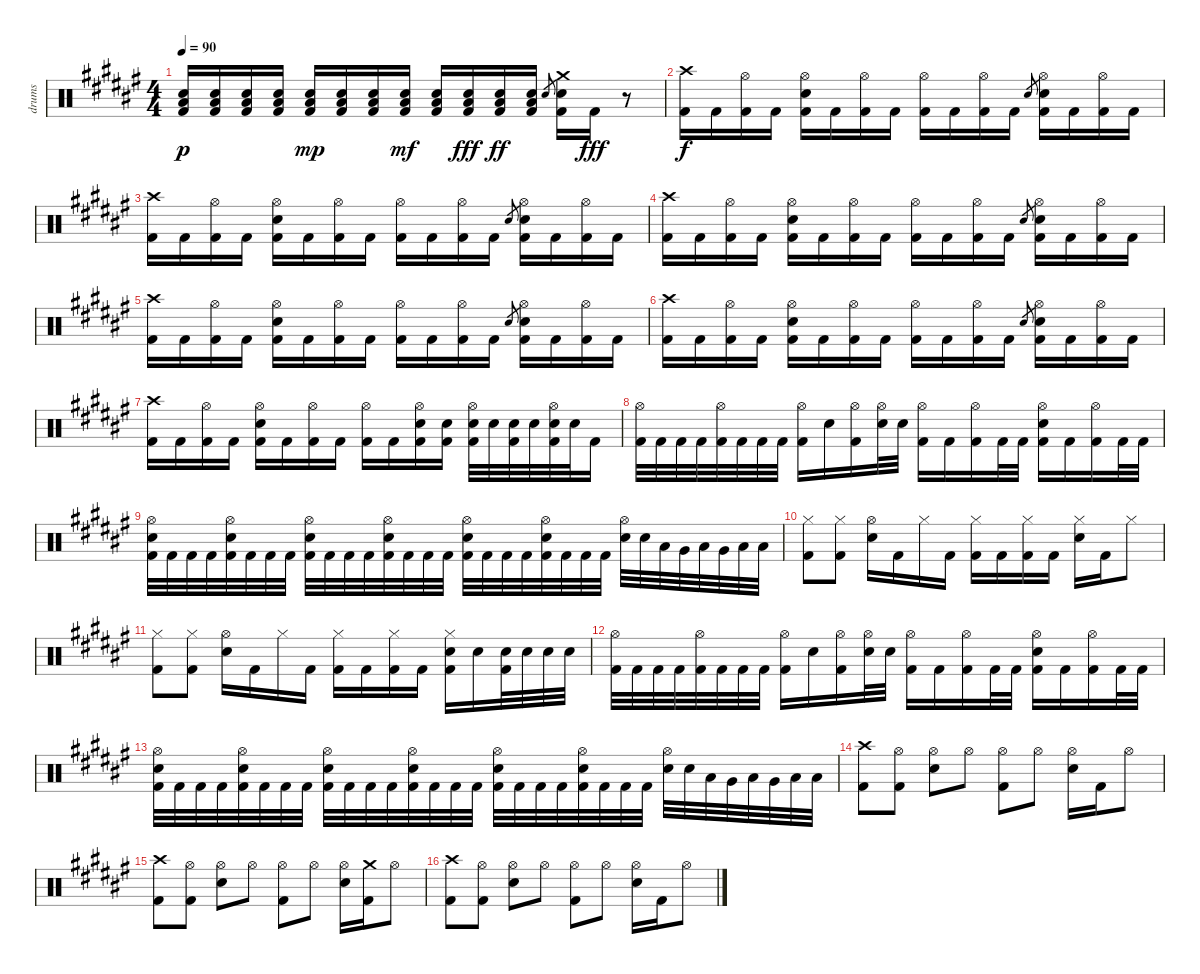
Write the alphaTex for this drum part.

\track ("drums" "drums") {instrument percussion}
\staff {score}
\articulation defaults
\ts (4 4)
\tempo 90
\clef neutral
\ks d#minor
("Low Floor Tom (hit)" "Electric Snare (hit)" "Kick (hit) 2").16{dy p} ("Low Floor Tom (hit)" "Electric Snare (hit)" "Kick (hit) 2").16 ("Low Floor Tom (hit)" "Electric Snare (hit)" "Kick (hit) 2").16 ("Low Floor Tom (hit)" "Electric Snare (hit)" "Kick (hit) 2").16 ("Low Floor Tom (hit)" "Electric Snare (hit)" "Kick (hit) 2").16{dy mp} ("Low Floor Tom (hit)" "Electric Snare (hit)" "Kick (hit) 2").16 ("Low Floor Tom (hit)" "Electric Snare (hit)" "Kick (hit) 2").16 ("Low Floor Tom (hit)" "Electric Snare (hit)" "Kick (hit) 2").16{dy mf} ("Low Floor Tom (hit)" "Electric Snare (hit)" "Kick (hit) 2").16 ("Low Floor Tom (hit)" "Electric Snare (hit)" "Kick (hit) 2").16{dy fff} ("Low Floor Tom (hit)" "Electric Snare (hit)" "Kick (hit) 2").16{dy ff} ("Low Floor Tom (hit)" "Electric Snare (hit)" "Kick (hit) 2").16 "Electric Snare (hit)".8{gr} ("Crash medium (hit)" "Electric Snare (hit)" "Kick (hit) 2").16 "Kick (hit) 2".16{dy fff} r.8 |
("Crash high (hit)" "Kick (hit) 2").16{dy f} "Kick (hit) 2".16 ("Hi-Hat (open)" "Kick (hit) 2").16 "Kick (hit) 2".16 ("Hi-Hat (open)" "Electric Snare (hit)" "Kick (hit) 2").16 "Kick (hit) 2".16 ("Hi-Hat (open)" "Kick (hit) 2").16 "Kick (hit) 2".16 ("Hi-Hat (open)" "Kick (hit) 2").16 "Kick (hit) 2".16 ("Hi-Hat (open)" "Kick (hit) 2").16 "Kick (hit) 2".16 "Electric Snare (hit)".8{gr} ("Hi-Hat (open)" "Electric Snare (hit)" "Kick (hit) 2").16 "Kick (hit) 2".16 ("Hi-Hat (open)" "Kick (hit) 2").16 "Kick (hit) 2".16 |
("Crash high (hit)" "Kick (hit) 2").16 "Kick (hit) 2".16 ("Hi-Hat (open)" "Kick (hit) 2").16 "Kick (hit) 2".16 ("Hi-Hat (open)" "Electric Snare (hit)" "Kick (hit) 2").16 "Kick (hit) 2".16 ("Hi-Hat (open)" "Kick (hit) 2").16 "Kick (hit) 2".16 ("Hi-Hat (open)" "Kick (hit) 2").16 "Kick (hit) 2".16 ("Hi-Hat (open)" "Kick (hit) 2").16 "Kick (hit) 2".16 "Electric Snare (hit)".8{gr} ("Hi-Hat (open)" "Electric Snare (hit)" "Kick (hit) 2").16 "Kick (hit) 2".16 ("Hi-Hat (open)" "Kick (hit) 2").16 "Kick (hit) 2".16 |
("Crash high (hit)" "Kick (hit) 2").16 "Kick (hit) 2".16 ("Hi-Hat (open)" "Kick (hit) 2").16 "Kick (hit) 2".16 ("Hi-Hat (open)" "Electric Snare (hit)" "Kick (hit) 2").16 "Kick (hit) 2".16 ("Hi-Hat (open)" "Kick (hit) 2").16 "Kick (hit) 2".16 ("Hi-Hat (open)" "Kick (hit) 2").16 "Kick (hit) 2".16 ("Hi-Hat (open)" "Kick (hit) 2").16 "Kick (hit) 2".16 "Electric Snare (hit)".8{gr} ("Hi-Hat (open)" "Electric Snare (hit)" "Kick (hit) 2").16 "Kick (hit) 2".16 ("Hi-Hat (open)" "Kick (hit) 2").16 "Kick (hit) 2".16 |
("Crash high (hit)" "Kick (hit) 2").16 "Kick (hit) 2".16 ("Hi-Hat (open)" "Kick (hit) 2").16 "Kick (hit) 2".16 ("Hi-Hat (open)" "Electric Snare (hit)" "Kick (hit) 2").16 "Kick (hit) 2".16 ("Hi-Hat (open)" "Kick (hit) 2").16 "Kick (hit) 2".16 ("Hi-Hat (open)" "Kick (hit) 2").16 "Kick (hit) 2".16 ("Hi-Hat (open)" "Kick (hit) 2").16 "Kick (hit) 2".16 "Electric Snare (hit)".8{gr} ("Hi-Hat (open)" "Electric Snare (hit)" "Kick (hit) 2").16 "Kick (hit) 2".16 ("Hi-Hat (open)" "Kick (hit) 2").16 "Kick (hit) 2".16 |
("Crash high (hit)" "Kick (hit) 2").16 "Kick (hit) 2".16 ("Hi-Hat (open)" "Kick (hit) 2").16 "Kick (hit) 2".16 ("Hi-Hat (open)" "Electric Snare (hit)" "Kick (hit) 2").16 "Kick (hit) 2".16 ("Hi-Hat (open)" "Kick (hit) 2").16 "Kick (hit) 2".16 ("Hi-Hat (open)" "Kick (hit) 2").16 "Kick (hit) 2".16 ("Hi-Hat (open)" "Kick (hit) 2").16 "Kick (hit) 2".16 "Electric Snare (hit)".8{gr} ("Hi-Hat (open)" "Electric Snare (hit)" "Kick (hit) 2").16 "Kick (hit) 2".16 ("Hi-Hat (open)" "Kick (hit) 2").16 "Kick (hit) 2".16 |
("Crash high (hit)" "Kick (hit) 2").16 "Kick (hit) 2".16 ("Hi-Hat (open)" "Kick (hit) 2").16 "Kick (hit) 2".16 ("Hi-Hat (open)" "Electric Snare (hit)" "Kick (hit) 2").16 "Kick (hit) 2".16 ("Hi-Hat (open)" "Kick (hit) 2").16 "Kick (hit) 2".16 ("Hi-Hat (open)" "Kick (hit) 2").16 "Kick (hit) 2".16 ("Hi-Hat (open)" "Electric Snare (hit)" "Kick (hit) 2").16 ("Electric Snare (hit)" "Kick (hit) 2").16 ("Hi-Hat (open)" "Electric Snare (hit)" "Kick (hit) 2").32 "Electric Snare (hit)".32 ("Electric Snare (hit)" "Kick (hit) 2").32 "Electric Snare (hit)".32 ("Hi-Hat (open)" "Electric Snare (hit)" "Kick (hit) 2").32 "Electric Snare (hit)".32 "Kick (hit) 2".16 |
("Hi-Hat (open)" "Kick (hit) 2").32 "Kick (hit) 2".32 "Kick (hit) 2".32 "Kick (hit) 2".32 ("Hi-Hat (open)" "Kick (hit) 2").32 "Kick (hit) 2".32 "Kick (hit) 2".32 "Kick (hit) 2".32 ("Hi-Hat (open)" "Kick (hit) 2").16 "Electric Snare (hit)".16 ("Hi-Hat (open)" "Kick (hit) 2").16 ("Hi-Hat (open)" "Electric Snare (hit)").32 "Electric Snare (hit)".32 ("Hi-Hat (open)" "Kick (hit) 2").16 "Kick (hit) 2".16 ("Hi-Hat (open)" "Kick (hit) 2").16 "Kick (hit) 2".32 "Kick (hit) 2".32 ("Hi-Hat (open)" "Electric Snare (hit)" "Kick (hit) 2").16 "Kick (hit) 2".16 ("Hi-Hat (open)" "Kick (hit) 2").16 "Kick (hit) 2".32 "Kick (hit) 2".32 |
("Hi-Hat (open)" "Electric Snare (hit)" "Kick (hit) 2").32 "Kick (hit) 2".32 "Kick (hit) 2".32 "Kick (hit) 2".32 ("Hi-Hat (open)" "Electric Snare (hit)" "Kick (hit) 2").32 "Kick (hit) 2".32 "Kick (hit) 2".32 "Kick (hit) 2".32 ("Hi-Hat (open)" "Electric Snare (hit)" "Kick (hit) 2").32 "Kick (hit) 2".32 "Kick (hit) 2".32 "Kick (hit) 2".32 ("Hi-Hat (open)" "Electric Snare (hit)" "Kick (hit) 2").32 "Kick (hit) 2".32 "Kick (hit) 2".32 "Kick (hit) 2".32 ("Hi-Hat (open)" "Electric Snare (hit)" "Kick (hit) 2").32 "Kick (hit) 2".32 "Kick (hit) 2".32 "Kick (hit) 2".32 ("Hi-Hat (open)" "Electric Snare (hit)" "Kick (hit) 2").32 "Kick (hit) 2".32 "Kick (hit) 2".32 "Kick (hit) 2".32 ("Hi-Hat (open)" "Electric Snare (hit)").32 "Electric Snare (hit)".32 "Low Tom (hit)".32 "Very Low Tom (hit)".32 "Low Tom (hit)".32 "Very Low Tom (hit)".32 "Low Floor Tom (hit)".32 "Low Floor Tom (hit)".32 |
("Hi-Hat (closed)" "Kick (hit) 2").8 ("Hi-Hat (closed)" "Kick (hit) 2").8 ("Hi-Hat (open)" "Electric Snare (hit)").16 "Kick (hit) 2".16 "Hi-Hat (closed)".16 "Kick (hit) 2".16 ("Hi-Hat (closed)" "Kick (hit) 2").16 "Kick (hit) 2".16 ("Hi-Hat (closed)" "Kick (hit) 2").16 "Kick (hit) 2".16 ("Hi-Hat (closed)" "Electric Snare (hit)").16 "Kick (hit) 2".16 "Hi-Hat (closed)".8 |
("Hi-Hat (closed)" "Kick (hit) 2").8 ("Hi-Hat (closed)" "Kick (hit) 2").8 ("Hi-Hat (open)" "Electric Snare (hit)").16 "Kick (hit) 2".16 "Hi-Hat (closed)".16 "Kick (hit) 2".16 ("Hi-Hat (closed)" "Kick (hit) 2").16 "Kick (hit) 2".16 ("Hi-Hat (closed)" "Kick (hit) 2").16 "Kick (hit) 2".16 ("Hi-Hat (closed)" "Electric Snare (hit)" "Kick (hit) 2").16 "Electric Snare (hit)".16 ("Electric Snare (hit)" "Kick (hit) 2").32 "Electric Snare (hit)".32 "Electric Snare (hit)".32 "Electric Snare (hit)".32 |
("Hi-Hat (open)" "Kick (hit) 2").32 "Kick (hit) 2".32 "Kick (hit) 2".32 "Kick (hit) 2".32 ("Hi-Hat (open)" "Kick (hit) 2").32 "Kick (hit) 2".32 "Kick (hit) 2".32 "Kick (hit) 2".32 ("Hi-Hat (open)" "Kick (hit) 2").16 "Electric Snare (hit)".16 ("Hi-Hat (open)" "Kick (hit) 2").16 ("Hi-Hat (open)" "Electric Snare (hit)").32 "Electric Snare (hit)".32 ("Hi-Hat (open)" "Kick (hit) 2").16 "Kick (hit) 2".16 ("Hi-Hat (open)" "Kick (hit) 2").16 "Kick (hit) 2".32 "Kick (hit) 2".32 ("Hi-Hat (open)" "Electric Snare (hit)" "Kick (hit) 2").16 "Kick (hit) 2".16 ("Hi-Hat (open)" "Kick (hit) 2").16 "Kick (hit) 2".32 "Kick (hit) 2".32 |
("Hi-Hat (open)" "Electric Snare (hit)" "Kick (hit) 2").32 "Kick (hit) 2".32 "Kick (hit) 2".32 "Kick (hit) 2".32 ("Hi-Hat (open)" "Electric Snare (hit)" "Kick (hit) 2").32 "Kick (hit) 2".32 "Kick (hit) 2".32 "Kick (hit) 2".32 ("Hi-Hat (open)" "Electric Snare (hit)" "Kick (hit) 2").32 "Kick (hit) 2".32 "Kick (hit) 2".32 "Kick (hit) 2".32 ("Hi-Hat (open)" "Electric Snare (hit)" "Kick (hit) 2").32 "Kick (hit) 2".32 "Kick (hit) 2".32 "Kick (hit) 2".32 ("Hi-Hat (open)" "Electric Snare (hit)" "Kick (hit) 2").32 "Kick (hit) 2".32 "Kick (hit) 2".32 "Kick (hit) 2".32 ("Hi-Hat (open)" "Electric Snare (hit)" "Kick (hit) 2").32 "Kick (hit) 2".32 "Kick (hit) 2".32 "Kick (hit) 2".32 ("Hi-Hat (open)" "Electric Snare (hit)").32 "Electric Snare (hit)".32 "Low Tom (hit)".32 "Very Low Tom (hit)".32 "Low Tom (hit)".32 "Very Low Tom (hit)".32 "Low Floor Tom (hit)".32 "Low Floor Tom (hit)".32 |
("Crash high (hit)" "Kick (hit) 2").8 ("Hi-Hat (open)" "Kick (hit) 2").8 ("Hi-Hat (open)" "Electric Snare (hit)").8 "Hi-Hat (open)".8 ("Hi-Hat (open)" "Kick (hit) 2").8 "Hi-Hat (open)".8 ("Hi-Hat (open)" "Electric Snare (hit)").16 "Kick (hit) 2".16 "Hi-Hat (open)".8 |
("Crash high (hit)" "Kick (hit) 2").8 ("Hi-Hat (open)" "Kick (hit) 2").8 ("Hi-Hat (open)" "Electric Snare (hit)").8 "Hi-Hat (open)".8 ("Hi-Hat (open)" "Kick (hit) 2").8 "Hi-Hat (open)".8 ("Hi-Hat (open)" "Electric Snare (hit)").16 ("Crash medium (hit)" "Kick (hit) 2").16 "Hi-Hat (open)".8 |
("Crash high (hit)" "Kick (hit) 2").8 ("Hi-Hat (open)" "Kick (hit) 2").8 ("Hi-Hat (open)" "Electric Snare (hit)").8 "Hi-Hat (open)".8 ("Hi-Hat (open)" "Kick (hit) 2").8 "Hi-Hat (open)".8 ("Hi-Hat (open)" "Electric Snare (hit)").16 "Kick (hit) 2".16 "Hi-Hat (open)".8
